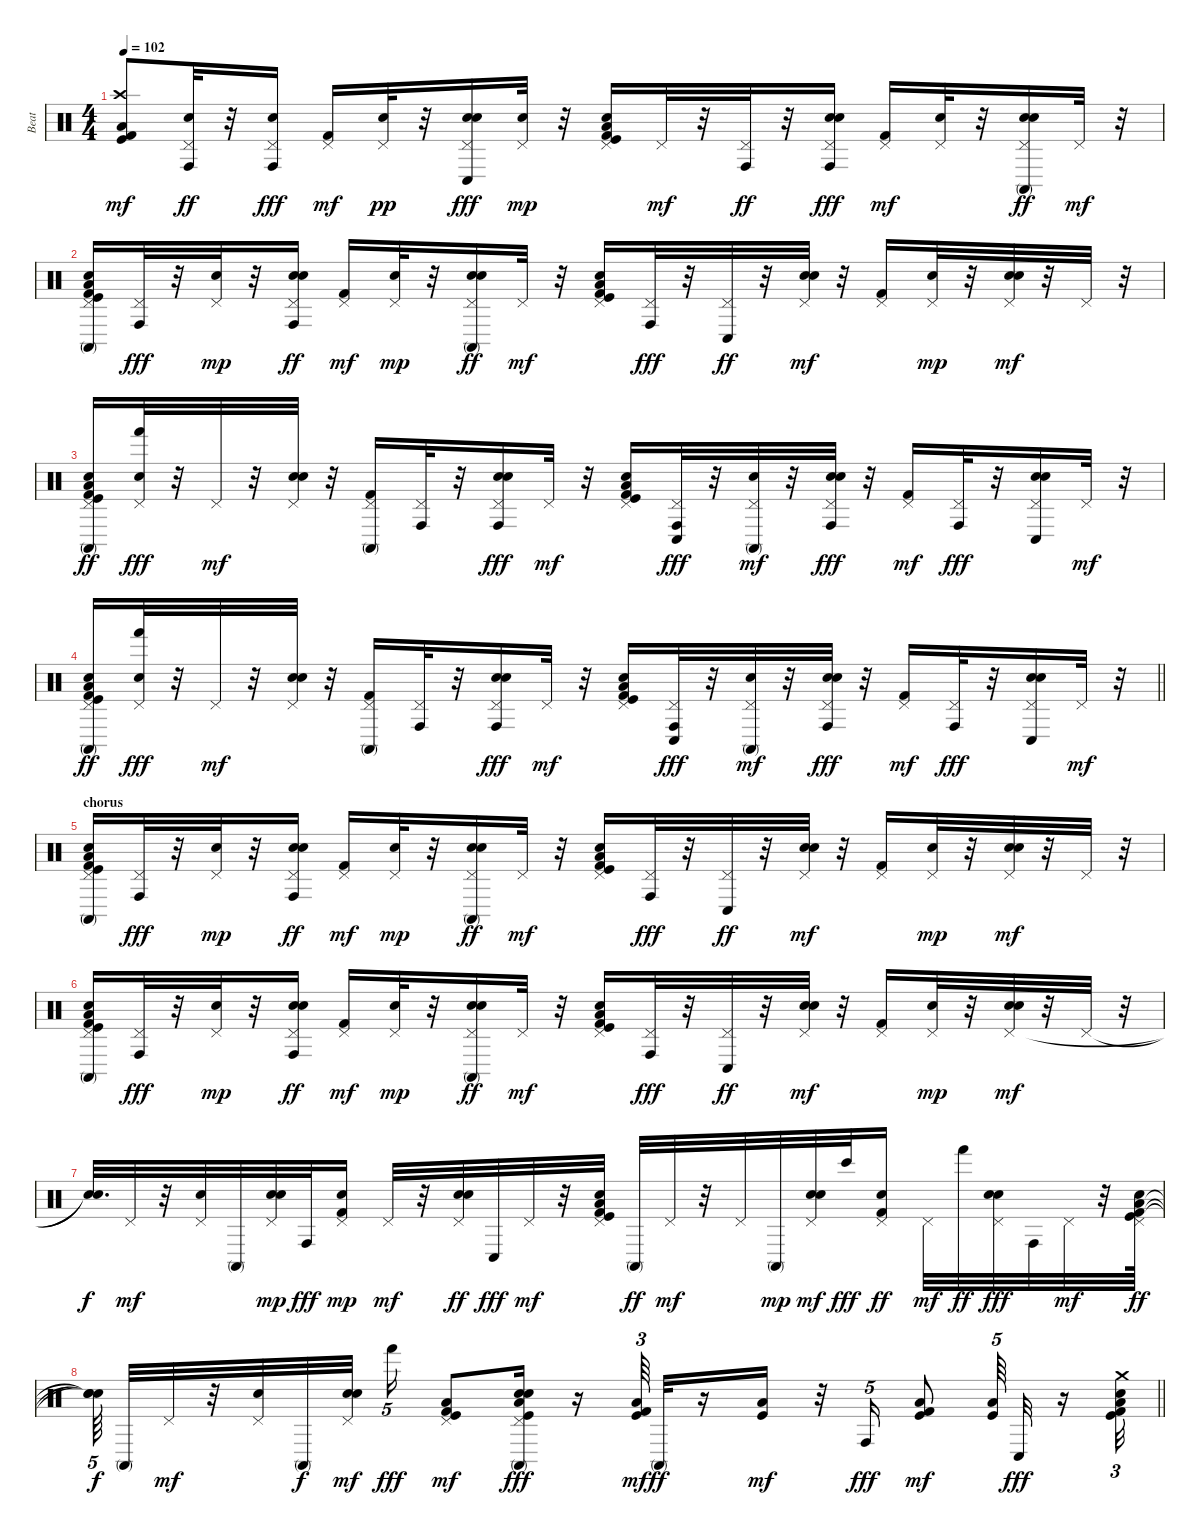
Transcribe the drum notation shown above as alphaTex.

\track ("Beat" "Beat") {instrument percussion}
\staff {score}
\articulation defaults
\ts (4 4)
\tempo 102
\clef neutral
\ks c
("Kick (hit) 2" "Kick (hit)" "Low Tom (hit)" "Crash high (hit)").8{dy mf} ("Pedal Hi-Hat (hit)" "Hand Clap (hit)" "Conga high (hit)").32{dy ff} r.32 ("Electric Snare (hit)" "Pedal Hi-Hat (hit)" "Conga high (hit)").16{dy fff} ("Kick (hit) 2" "Pedal Hi-Hat (hit)").16{dy mf} ("Pedal Hi-Hat (hit)" "Hand Clap (hit)").32{dy pp} r.32 ("Electric Snare (hit)" "Pedal Hi-Hat (hit)" "Hand Clap (hit)" "Conga low (hit)").16{dy fff} ("Pedal Hi-Hat (hit)" "Hand Clap (hit)").32{dy mp} r.32 ("Low Tom (hit)" "Kick (hit)" "Kick (hit) 2" "Pedal Hi-Hat (hit)" "Hand Clap (hit)").16 "Pedal Hi-Hat (hit)".32{dy mf} r.32 ("Pedal Hi-Hat (hit)" "Conga high (hit)").32{dy ff} r.32 ("Electric Snare (hit)" "Pedal Hi-Hat (hit)" "Hand Clap (hit)" "Conga high (hit)").16{dy fff} ("Kick (hit) 2" "Pedal Hi-Hat (hit)").16{dy mf} ("Pedal Hi-Hat (hit)" "Hand Clap (hit)").32 r.32 ("Electric Snare (hit)" "Pedal Hi-Hat (hit)" "Hand Clap (hit)" "Conga high (mute)").16{dy ff} "Pedal Hi-Hat (hit)".32{dy mf} r.32 |
("Low Tom (hit)" "Kick (hit)" "Kick (hit) 2" "Pedal Hi-Hat (hit)" "Hand Clap (hit)" "Conga high (mute)").16 ("Pedal Hi-Hat (hit)" "Conga high (hit)").32{dy fff} r.32 ("Pedal Hi-Hat (hit)" "Hand Clap (hit)").32{dy mp} r.32 ("Electric Snare (hit)" "Pedal Hi-Hat (hit)" "Hand Clap (hit)" "Conga high (hit)").16{dy ff} ("Kick (hit) 2" "Pedal Hi-Hat (hit)").16{dy mf} ("Pedal Hi-Hat (hit)" "Hand Clap (hit)").32{dy mp} r.32 ("Electric Snare (hit)" "Pedal Hi-Hat (hit)" "Hand Clap (hit)" "Conga high (mute)").16{dy ff} "Pedal Hi-Hat (hit)".32{dy mf} r.32 ("Low Tom (hit)" "Kick (hit)" "Kick (hit) 2" "Pedal Hi-Hat (hit)" "Hand Clap (hit)").16 ("Pedal Hi-Hat (hit)" "Conga high (hit)").32{dy fff} r.32 ("Pedal Hi-Hat (hit)" "Conga low (hit)").32{dy ff} r.32 ("Electric Snare (hit)" "Pedal Hi-Hat (hit)" "Hand Clap (hit)").32{dy mf} r.32 ("Kick (hit) 2" "Pedal Hi-Hat (hit)").16 ("Pedal Hi-Hat (hit)" "Hand Clap (hit)").32{dy mp} r.32 ("Electric Snare (hit)" "Pedal Hi-Hat (hit)" "Hand Clap (hit)").32{dy mf} r.32 "Pedal Hi-Hat (hit)".32 r.32 |
("Low Tom (hit)" "Kick (hit)" "Kick (hit) 2" "Pedal Hi-Hat (hit)" "Hand Clap (hit)" "Conga high (mute)").16{dy ff} ("Pedal Hi-Hat (hit)" "Hand Clap (hit)" "Hand (hit)").32{dy fff} r.32 "Pedal Hi-Hat (hit)".32{dy mf} r.32 ("Electric Snare (hit)" "Pedal Hi-Hat (hit)" "Hand Clap (hit)").32 r.32 ("Kick (hit) 2" "Pedal Hi-Hat (hit)" "Conga high (mute)").16 ("Pedal Hi-Hat (hit)" "Conga high (hit)").32 r.32 ("Electric Snare (hit)" "Pedal Hi-Hat (hit)" "Hand Clap (hit)" "Conga high (hit)").16{dy fff} "Pedal Hi-Hat (hit)".32{dy mf} r.32 ("Low Tom (hit)" "Kick (hit)" "Kick (hit) 2" "Pedal Hi-Hat (hit)" "Hand Clap (hit)").16 ("Pedal Hi-Hat (hit)" "Conga low (hit)" "Conga high (hit)").32{dy fff} r.32 ("Pedal Hi-Hat (hit)" "Hand Clap (hit)" "Conga high (mute)").32{dy mf} r.32 ("Electric Snare (hit)" "Pedal Hi-Hat (hit)" "Hand Clap (hit)" "Conga high (hit)").32{dy fff} r.32 ("Kick (hit) 2" "Pedal Hi-Hat (hit)").16{dy mf} ("Pedal Hi-Hat (hit)" "Conga high (hit)").32{dy fff} r.32 ("Electric Snare (hit)" "Pedal Hi-Hat (hit)" "Hand Clap (hit)" "Conga low (hit)").16 "Pedal Hi-Hat (hit)".32{dy mf} r.32 |
\barLineRight lightlight
("Low Tom (hit)" "Kick (hit)" "Kick (hit) 2" "Pedal Hi-Hat (hit)" "Hand Clap (hit)" "Conga high (mute)").16{dy ff} ("Pedal Hi-Hat (hit)" "Hand Clap (hit)" "Hand (hit)").32{dy fff} r.32 "Pedal Hi-Hat (hit)".32{dy mf} r.32 ("Electric Snare (hit)" "Pedal Hi-Hat (hit)" "Hand Clap (hit)").32 r.32 ("Kick (hit) 2" "Pedal Hi-Hat (hit)" "Conga high (mute)").16 ("Pedal Hi-Hat (hit)" "Conga high (hit)").32 r.32 ("Electric Snare (hit)" "Pedal Hi-Hat (hit)" "Hand Clap (hit)" "Conga high (hit)").16{dy fff} "Pedal Hi-Hat (hit)".32{dy mf} r.32 ("Low Tom (hit)" "Kick (hit)" "Kick (hit) 2" "Pedal Hi-Hat (hit)" "Hand Clap (hit)").16 ("Pedal Hi-Hat (hit)" "Conga low (hit)" "Conga high (hit)").32{dy fff} r.32 ("Pedal Hi-Hat (hit)" "Hand Clap (hit)" "Conga high (mute)").32{dy mf} r.32 ("Electric Snare (hit)" "Pedal Hi-Hat (hit)" "Hand Clap (hit)" "Conga high (hit)").32{dy fff} r.32 ("Kick (hit) 2" "Pedal Hi-Hat (hit)").16{dy mf} ("Pedal Hi-Hat (hit)" "Conga high (hit)").32{dy fff} r.32 ("Electric Snare (hit)" "Pedal Hi-Hat (hit)" "Hand Clap (hit)" "Conga low (hit)").16 "Pedal Hi-Hat (hit)".32{dy mf} r.32 |
\section ("" "chorus")
("Low Tom (hit)" "Kick (hit)" "Kick (hit) 2" "Pedal Hi-Hat (hit)" "Hand Clap (hit)" "Conga high (mute)").16 ("Pedal Hi-Hat (hit)" "Conga high (hit)").32{dy fff} r.32 ("Pedal Hi-Hat (hit)" "Hand Clap (hit)").32{dy mp} r.32 ("Electric Snare (hit)" "Pedal Hi-Hat (hit)" "Hand Clap (hit)" "Conga high (hit)").16{dy ff} ("Kick (hit) 2" "Pedal Hi-Hat (hit)").16{dy mf} ("Pedal Hi-Hat (hit)" "Hand Clap (hit)").32{dy mp} r.32 ("Electric Snare (hit)" "Pedal Hi-Hat (hit)" "Hand Clap (hit)" "Conga high (mute)").16{dy ff} "Pedal Hi-Hat (hit)".32{dy mf} r.32 ("Low Tom (hit)" "Kick (hit)" "Kick (hit) 2" "Pedal Hi-Hat (hit)" "Hand Clap (hit)").16 ("Pedal Hi-Hat (hit)" "Conga high (hit)").32{dy fff} r.32 ("Pedal Hi-Hat (hit)" "Conga low (hit)").32{dy ff} r.32 ("Electric Snare (hit)" "Pedal Hi-Hat (hit)" "Hand Clap (hit)").32{dy mf} r.32 ("Kick (hit) 2" "Pedal Hi-Hat (hit)").16 ("Pedal Hi-Hat (hit)" "Hand Clap (hit)").32{dy mp} r.32 ("Electric Snare (hit)" "Pedal Hi-Hat (hit)" "Hand Clap (hit)").32{dy mf} r.32 "Pedal Hi-Hat (hit)".32 r.32 |
("Low Tom (hit)" "Kick (hit)" "Kick (hit) 2" "Pedal Hi-Hat (hit)" "Hand Clap (hit)" "Conga high (mute)").16 ("Pedal Hi-Hat (hit)" "Conga high (hit)").32{dy fff} r.32 ("Pedal Hi-Hat (hit)" "Hand Clap (hit)").32{dy mp} r.32 ("Electric Snare (hit)" "Pedal Hi-Hat (hit)" "Hand Clap (hit)" "Conga high (hit)").16{dy ff} ("Kick (hit) 2" "Pedal Hi-Hat (hit)").16{dy mf} ("Pedal Hi-Hat (hit)" "Hand Clap (hit)").32{dy mp} r.32 ("Electric Snare (hit)" "Pedal Hi-Hat (hit)" "Hand Clap (hit)" "Conga high (mute)").16{dy ff} "Pedal Hi-Hat (hit)".32{dy mf} r.32 ("Low Tom (hit)" "Kick (hit)" "Kick (hit) 2" "Pedal Hi-Hat (hit)" "Hand Clap (hit)").16 ("Pedal Hi-Hat (hit)" "Conga high (hit)").32{dy fff} r.32 ("Pedal Hi-Hat (hit)" "Conga low (hit)").32{dy ff} r.32 ("Electric Snare (hit)" "Pedal Hi-Hat (hit)" "Hand Clap (hit)").32{dy mf} r.32 ("Kick (hit) 2" "Pedal Hi-Hat (hit)").16 ("Pedal Hi-Hat (hit)" "Hand Clap (hit)").32{dy mp} r.32 ("Electric Snare (hit)" "Pedal Hi-Hat (hit)" "Hand Clap (hit)").32{dy mf} r.32 "Pedal Hi-Hat (hit)".32 r.32 |
("Snare (hit)"{t} "Snare (hit)"{t}).32{d dy f} "Pedal Hi-Hat (hit)".32{dy mf} r.32 ("Pedal Hi-Hat (hit)" "Hand Clap (hit)").32 "Conga high (mute)".32 ("Electric Snare (hit)" "Pedal Hi-Hat (hit)" "Hand Clap (hit)").32{dy mp} "Conga high (hit)".32{dy fff} ("Kick (hit) 2" "Pedal Hi-Hat (hit)" "Hand Clap (hit)").16{dy mp} "Pedal Hi-Hat (hit)".32{dy mf} r.32 ("Electric Snare (hit)" "Pedal Hi-Hat (hit)" "Hand Clap (hit)").32{dy ff} "Conga low (hit)".32{dy fff} "Pedal Hi-Hat (hit)".32{dy mf} r.32 ("Low Tom (hit)" "Kick (hit)" "Kick (hit) 2" "Pedal Hi-Hat (hit)" "Hand Clap (hit)").32 "Conga high (mute)".32{dy ff} "Pedal Hi-Hat (hit)".32{dy mf} r.32 "Pedal Hi-Hat (hit)".32 "Conga high (mute)".32{dy mp} ("Electric Snare (hit)" "Pedal Hi-Hat (hit)" "Hand Clap (hit)").32{dy mf} "Bongo High (hit)".32{dy fff} ("Kick (hit) 2" "Pedal Hi-Hat (hit)" "Hand Clap (hit)").16{dy ff} "Pedal Hi-Hat (hit)".32{dy mf} "Hand (hit)".32{dy ff} ("Electric Snare (hit)" "Pedal Hi-Hat (hit)" "Hand Clap (hit)").32{dy fff} "Conga high (hit)".32 "Pedal Hi-Hat (hit)".32{dy mf} r.32 ("Low Tom (hit)" "Kick (hit)" "Kick (hit) 2" "Pedal Hi-Hat (hit)" "Hand Clap (hit)").64{dy ff} |
\barLineRight lightlight
("Snare (hit)"{t} "Snare (hit)"{t} "Snare (hit)"{t}).64{tu (5 4) dy f beam splitsecondary} "Conga high (mute)".32 "Pedal Hi-Hat (hit)".32{dy mf} r.32 ("Pedal Hi-Hat (hit)" "Hand Clap (hit)").32 "Conga high (mute)".32{dy f} ("Electric Snare (hit)" "Pedal Hi-Hat (hit)" "Hand Clap (hit)").32{dy mf beam splitsecondary} "Hand (hit)".16{tu (5 4) dy fff} ("Kick (hit)" "Low Tom (hit)" "Kick (hit) 2" "Pedal Hi-Hat (hit)").8{dy mf} ("Kick (hit)" "Low Tom (hit)" "Electric Snare (hit)" "Pedal Hi-Hat (hit)" "Hand Clap (hit)" "Conga high (mute)").16{dy fff} r.16 ("Low Tom (hit)" "Kick (hit)" "Kick (hit) 2").64{tu (3 2) dy mf} "Conga high (mute)".32{dy ff} r.16 ("Low Tom (hit)" "Kick (hit)").16{dy mf} r.32 "Conga high (hit)".16{tu (5 4) dy fff} ("Low Tom (hit)" "Kick (hit)" "Kick (hit) 2").8{dy mf} ("Low Tom (hit)" "Kick (hit)").64{tu (5 4)} "Conga low (hit)".32{dy fff} r.16 ("Low Tom (hit)" "Kick (hit)" "Kick (hit) 2" "Crash medium (hit)" "Hand Clap (hit)").32{tu (3 2)}
